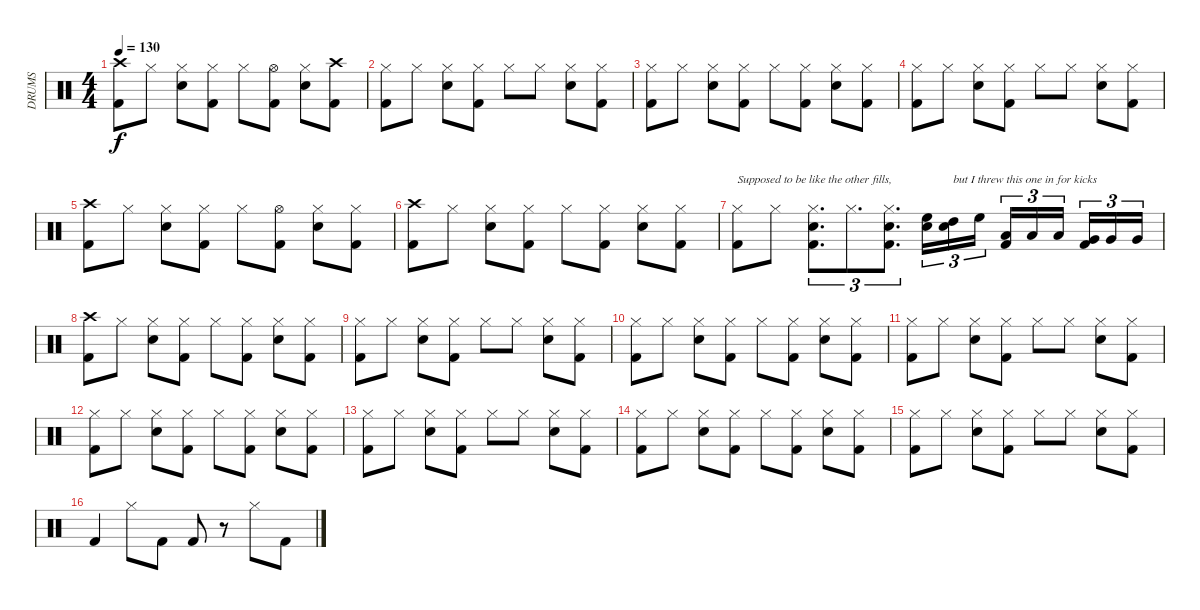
\track ("DRUMS" "DRUMS") {instrument percussion}
\staff {score}
\articulation defaults
\ts (4 4)
\tempo 130
\clef neutral
\ks c
("Crash high (hit)" "Kick (hit) 2").8{dy f} "Hi-Hat (closed)".8 ("Hi-Hat (closed)" "Snare (hit) 2").8 ("Hi-Hat (closed)" "Kick (hit) 2").8 "Hi-Hat (closed)".8 ("Hi-Hat (open)" "Kick (hit) 2").8 ("Hi-Hat (closed)" "Snare (hit) 2").8 ("Crash high (hit)" "Kick (hit) 2").8 |
("Hi-Hat (closed)" "Kick (hit) 2").8 "Hi-Hat (closed)".8 ("Hi-Hat (closed)" "Snare (hit) 2").8 ("Hi-Hat (closed)" "Kick (hit) 2").8 "Hi-Hat (closed)".8 "Hi-Hat (closed)".8 ("Hi-Hat (closed)" "Snare (hit) 2").8 ("Hi-Hat (closed)" "Kick (hit) 2").8 |
("Hi-Hat (closed)" "Kick (hit) 2").8 "Hi-Hat (closed)".8 ("Hi-Hat (closed)" "Snare (hit) 2").8 ("Hi-Hat (closed)" "Kick (hit) 2").8 "Hi-Hat (closed)".8 ("Hi-Hat (closed)" "Kick (hit) 2").8 ("Hi-Hat (closed)" "Snare (hit) 2").8 ("Hi-Hat (closed)" "Kick (hit) 2").8 |
("Hi-Hat (closed)" "Kick (hit) 2").8 "Hi-Hat (closed)".8 ("Hi-Hat (closed)" "Snare (hit) 2").8 ("Hi-Hat (closed)" "Kick (hit) 2").8 "Hi-Hat (closed)".8 "Hi-Hat (closed)".8 ("Hi-Hat (closed)" "Snare (hit) 2").8 ("Hi-Hat (closed)" "Kick (hit) 2").8 |
("Crash high (hit)" "Kick (hit) 2").8 "Hi-Hat (closed)".8 ("Hi-Hat (closed)" "Snare (hit) 2").8 ("Hi-Hat (closed)" "Kick (hit) 2").8 "Hi-Hat (closed)".8 ("Hi-Hat (open)" "Kick (hit) 2").8 ("Hi-Hat (closed)" "Snare (hit) 2").8 ("Hi-Hat (closed)" "Kick (hit) 2").8 |
("Crash high (hit)" "Kick (hit) 2").8 "Hi-Hat (closed)".8 ("Hi-Hat (closed)" "Snare (hit) 2").8 ("Hi-Hat (closed)" "Kick (hit) 2").8 "Hi-Hat (closed)".8 ("Hi-Hat (closed)" "Kick (hit) 2").8 ("Hi-Hat (closed)" "Snare (hit) 2").8 ("Hi-Hat (closed)" "Kick (hit) 2").8 |
("Hi-Hat (closed)" "Kick (hit) 2").8{txt "Supposed to be like the other fills,"} "Hi-Hat (closed)".8 ("Hi-Hat (closed)" "Snare (hit) 2" "Kick (hit) 2").8{d tu (3 2)} "Hi-Hat (closed)".8{d tu (3 2)} ("Hi-Hat (closed)" "Snare (hit) 2" "Kick (hit) 2").8{d tu (3 2)} ("High Floor Tom (hit)" "Snare (hit) 2").16{tu (3 2) balance 0} ("High Tom (hit)" "Snare (hit) 2").16{tu (3 2) txt "but I threw this one in for kicks"} "High Floor Tom (hit)".16{tu (3 2)} ("Low Tom (hit)" "Kick (hit) 2").16{tu (3 2) balance 8} "Low Tom (hit)".16{tu (3 2)} "Low Tom (hit)".16{tu (3 2)} ("Very Low Tom (hit)" "Kick (hit) 2").16{tu (3 2) balance 16} "Very Low Tom (hit)".16{tu (3 2)} "Very Low Tom (hit)".16{tu (3 2)} |
("Crash high (hit)" "Kick (hit) 2").8{balance 8} "Hi-Hat (closed)".8 ("Hi-Hat (closed)" "Snare (hit) 2").8 ("Hi-Hat (closed)" "Kick (hit) 2").8 "Hi-Hat (closed)".8 ("Hi-Hat (closed)" "Kick (hit) 2").8 ("Hi-Hat (closed)" "Snare (hit) 2").8 ("Hi-Hat (closed)" "Kick (hit) 2").8 |
("Hi-Hat (closed)" "Kick (hit) 2").8 "Hi-Hat (closed)".8 ("Hi-Hat (closed)" "Snare (hit) 2").8 ("Hi-Hat (closed)" "Kick (hit) 2").8 "Hi-Hat (closed)".8 "Hi-Hat (closed)".8 ("Hi-Hat (closed)" "Snare (hit) 2").8 ("Hi-Hat (closed)" "Kick (hit) 2").8 |
("Hi-Hat (closed)" "Kick (hit) 2").8 "Hi-Hat (closed)".8 ("Hi-Hat (closed)" "Snare (hit) 2").8 ("Hi-Hat (closed)" "Kick (hit) 2").8 "Hi-Hat (closed)".8 ("Hi-Hat (closed)" "Kick (hit) 2").8 ("Hi-Hat (closed)" "Snare (hit) 2").8 ("Hi-Hat (closed)" "Kick (hit) 2").8 |
("Hi-Hat (closed)" "Kick (hit) 2").8 "Hi-Hat (closed)".8 ("Hi-Hat (closed)" "Snare (hit) 2").8 ("Hi-Hat (closed)" "Kick (hit) 2").8 "Hi-Hat (closed)".8 "Hi-Hat (closed)".8 ("Hi-Hat (closed)" "Snare (hit) 2").8 ("Hi-Hat (closed)" "Kick (hit) 2").8 |
("Hi-Hat (closed)" "Kick (hit) 2").8 "Hi-Hat (closed)".8 ("Hi-Hat (closed)" "Snare (hit) 2").8 ("Hi-Hat (closed)" "Kick (hit) 2").8 "Hi-Hat (closed)".8 ("Hi-Hat (closed)" "Kick (hit) 2").8 ("Hi-Hat (closed)" "Snare (hit) 2").8 ("Hi-Hat (closed)" "Kick (hit) 2").8 |
("Hi-Hat (closed)" "Kick (hit) 2").8 "Hi-Hat (closed)".8 ("Hi-Hat (closed)" "Snare (hit) 2").8 ("Hi-Hat (closed)" "Kick (hit) 2").8 "Hi-Hat (closed)".8 "Hi-Hat (closed)".8 ("Hi-Hat (closed)" "Snare (hit) 2").8 ("Hi-Hat (closed)" "Kick (hit) 2").8 |
("Hi-Hat (closed)" "Kick (hit) 2").8 "Hi-Hat (closed)".8 ("Hi-Hat (closed)" "Snare (hit) 2").8 ("Hi-Hat (closed)" "Kick (hit) 2").8 "Hi-Hat (closed)".8 ("Hi-Hat (closed)" "Kick (hit) 2").8 ("Hi-Hat (closed)" "Snare (hit) 2").8 ("Hi-Hat (closed)" "Kick (hit) 2").8 |
("Hi-Hat (closed)" "Kick (hit) 2").8 "Hi-Hat (closed)".8 ("Hi-Hat (closed)" "Snare (hit) 2").8 ("Hi-Hat (closed)" "Kick (hit) 2").8 "Hi-Hat (closed)".8 "Hi-Hat (closed)".8 ("Hi-Hat (closed)" "Snare (hit) 2").8 ("Hi-Hat (closed)" "Kick (hit) 2").8 |
"Kick (hit) 2".4 "Hi-Hat (closed)".8 "Kick (hit) 2".8 "Kick (hit) 2".8 r.8 "Hi-Hat (closed)".8 "Kick (hit) 2".8
